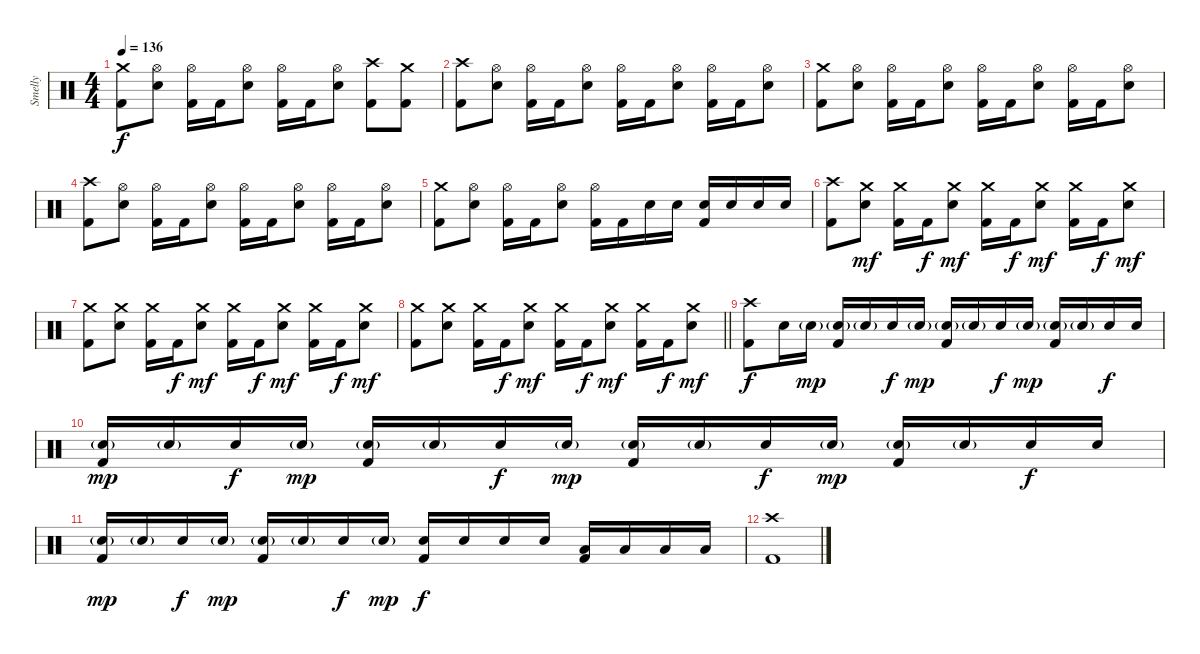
\track ("Smelly" "Smelly") {instrument percussion}
\staff {score}
\articulation defaults
\ts (4 4)
\tempo 136
\clef neutral
\ks c
("Crash medium (hit)" "Kick (hit) 2").8{dy f} ("Hi-Hat (open)" "Electric Snare (hit)").8 ("Hi-Hat (open)" "Kick (hit) 2").16 "Kick (hit) 2".16 ("Hi-Hat (open)" "Electric Snare (hit)").8 ("Hi-Hat (open)" "Kick (hit) 2").16 "Kick (hit) 2".16 ("Hi-Hat (open)" "Electric Snare (hit)").8 ("Crash high (hit)" "Kick (hit) 2").8 ("Crash medium (hit)" "Kick (hit) 2").8 |
("Crash high (hit)" "Kick (hit) 2").8 ("Hi-Hat (open)" "Electric Snare (hit)").8 ("Hi-Hat (open)" "Kick (hit) 2").16 "Kick (hit) 2".16 ("Hi-Hat (open)" "Electric Snare (hit)").8 ("Hi-Hat (open)" "Kick (hit) 2").16 "Kick (hit) 2".16 ("Hi-Hat (open)" "Electric Snare (hit)").8 ("Hi-Hat (open)" "Kick (hit) 2").16 "Kick (hit) 2".16 ("Hi-Hat (open)" "Electric Snare (hit)").8 |
("Crash medium (hit)" "Kick (hit) 2").8 ("Hi-Hat (open)" "Electric Snare (hit)").8 ("Hi-Hat (open)" "Kick (hit) 2").16 "Kick (hit) 2".16 ("Hi-Hat (open)" "Electric Snare (hit)").8 ("Hi-Hat (open)" "Kick (hit) 2").16 "Kick (hit) 2".16 ("Hi-Hat (open)" "Electric Snare (hit)").8 ("Hi-Hat (open)" "Kick (hit) 2").16 "Kick (hit) 2".16 ("Hi-Hat (open)" "Electric Snare (hit)").8 |
("Crash high (hit)" "Kick (hit) 2").8 ("Hi-Hat (open)" "Electric Snare (hit)").8 ("Hi-Hat (open)" "Kick (hit) 2").16 "Kick (hit) 2".16 ("Hi-Hat (open)" "Electric Snare (hit)").8 ("Hi-Hat (open)" "Kick (hit) 2").16 "Kick (hit) 2".16 ("Hi-Hat (open)" "Electric Snare (hit)").8 ("Hi-Hat (open)" "Kick (hit) 2").16 "Kick (hit) 2".16 ("Hi-Hat (open)" "Electric Snare (hit)").8 |
("Crash medium (hit)" "Kick (hit) 2").8 ("Hi-Hat (open)" "Electric Snare (hit)").8 ("Hi-Hat (open)" "Kick (hit) 2").16 "Kick (hit) 2".16 ("Hi-Hat (open)" "Electric Snare (hit)").8 ("Hi-Hat (open)" "Kick (hit) 2").16 "Kick (hit) 2".16 "Electric Snare (hit)".16 "Electric Snare (hit)".16 ("Electric Snare (hit)" "Kick (hit) 2").16 "Electric Snare (hit)".16 "Electric Snare (hit)".16 "Electric Snare (hit)".16 |
("Crash high (hit)" "Kick (hit) 2").8 ("Crash medium (hit)" "Electric Snare (hit)").8{dy mf} ("Crash medium (hit)" "Kick (hit) 2").16 "Kick (hit) 2".16{dy f} ("Crash medium (hit)" "Electric Snare (hit)").8{dy mf} ("Crash medium (hit)" "Kick (hit) 2").16 "Kick (hit) 2".16{dy f} ("Crash medium (hit)" "Electric Snare (hit)").8{dy mf} ("Crash medium (hit)" "Kick (hit) 2").16 "Kick (hit) 2".16{dy f} ("Crash medium (hit)" "Electric Snare (hit)").8{dy mf} |
("Crash medium (hit)" "Kick (hit) 2").8 ("Crash medium (hit)" "Electric Snare (hit)").8 ("Crash medium (hit)" "Kick (hit) 2").16 "Kick (hit) 2".16{dy f} ("Crash medium (hit)" "Electric Snare (hit)").8{dy mf} ("Crash medium (hit)" "Kick (hit) 2").16 "Kick (hit) 2".16{dy f} ("Crash medium (hit)" "Electric Snare (hit)").8{dy mf} ("Crash medium (hit)" "Kick (hit) 2").16 "Kick (hit) 2".16{dy f} ("Crash medium (hit)" "Electric Snare (hit)").8{dy mf} |
\barLineRight lightlight
("Crash medium (hit)" "Kick (hit) 2").8 ("Crash medium (hit)" "Electric Snare (hit)").8 ("Crash medium (hit)" "Kick (hit) 2").16 "Kick (hit) 2".16{dy f} ("Crash medium (hit)" "Electric Snare (hit)").8{dy mf} ("Crash medium (hit)" "Kick (hit) 2").16 "Kick (hit) 2".16{dy f} ("Crash medium (hit)" "Electric Snare (hit)").8{dy mf} ("Crash medium (hit)" "Kick (hit) 2").16 "Kick (hit) 2".16{dy f} ("Crash medium (hit)" "Electric Snare (hit)").8{dy mf} |
\section ("" "")
("Crash high (hit)" "Kick (hit) 2").8{dy f} "Electric Snare (hit)".16 "Electric Snare (hit)"{g}.16{dy mp} ("Electric Snare (hit)"{g} "Kick (hit) 2").16 "Electric Snare (hit)"{g}.16 "Electric Snare (hit)".16{dy f} "Electric Snare (hit)"{g}.16{dy mp} ("Electric Snare (hit)"{g} "Kick (hit) 2").16 "Electric Snare (hit)"{g}.16 "Electric Snare (hit)".16{dy f} "Electric Snare (hit)"{g}.16{dy mp} ("Electric Snare (hit)"{g} "Kick (hit) 2").16 "Electric Snare (hit)"{g}.16 "Electric Snare (hit)".16{dy f} "Electric Snare (hit)".16 |
("Electric Snare (hit)"{g} "Kick (hit) 2").16{dy mp} "Electric Snare (hit)"{g}.16 "Electric Snare (hit)".16{dy f} "Electric Snare (hit)"{g}.16{dy mp} ("Electric Snare (hit)"{g} "Kick (hit) 2").16 "Electric Snare (hit)"{g}.16 "Electric Snare (hit)".16{dy f} "Electric Snare (hit)"{g}.16{dy mp} ("Electric Snare (hit)"{g} "Kick (hit) 2").16 "Electric Snare (hit)"{g}.16 "Electric Snare (hit)".16{dy f} "Electric Snare (hit)"{g}.16{dy mp} ("Electric Snare (hit)"{g} "Kick (hit) 2").16 "Electric Snare (hit)"{g}.16 "Electric Snare (hit)".16{dy f} "Electric Snare (hit)".16 |
("Electric Snare (hit)"{g} "Kick (hit) 2").16{dy mp} "Electric Snare (hit)"{g}.16 "Electric Snare (hit)".16{dy f} "Electric Snare (hit)"{g}.16{dy mp} ("Electric Snare (hit)"{g} "Kick (hit) 2").16 "Electric Snare (hit)"{g}.16 "Electric Snare (hit)".16{dy f} "Electric Snare (hit)"{g}.16{dy mp} ("Electric Snare (hit)" "Kick (hit) 2").16{dy f} "Electric Snare (hit)".16 "Electric Snare (hit)".16 "Electric Snare (hit)".16 ("Low Tom (hit)" "Kick (hit) 2").16 "Low Tom (hit)".16 "Low Floor Tom (hit)".16 "Low Floor Tom (hit)".16 |
("Crash high (hit)" "Kick (hit) 2").1
